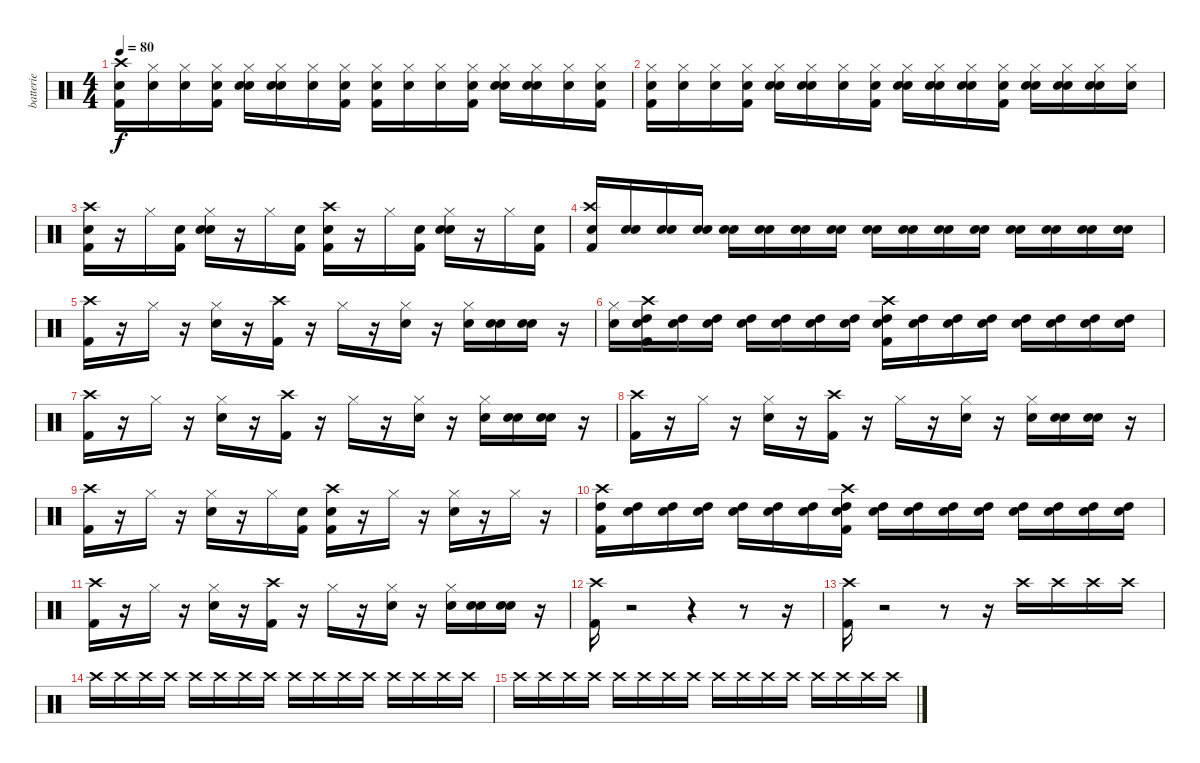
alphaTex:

\track ("batterie" "batterie") {instrument percussion}
\staff {score}
\articulation defaults
\ts (4 4)
\tempo 80
\clef neutral
\ks c
("Snare (hit)" "Crash high (hit)" "Kick (hit) 2").16{dy f} ("Snare (hit)" "Hi-Hat (closed)").16 ("Snare (hit)" "Hi-Hat (closed)").16 ("Snare (hit)" "Hi-Hat (closed)" "Kick (hit) 2").16 ("Snare (hit)" "Hi-Hat (closed)" "Snare (hit) 2").16 ("Snare (hit)" "Hi-Hat (closed)" "Snare (hit) 2").16 ("Snare (hit)" "Hi-Hat (closed)").16 ("Snare (hit)" "Hi-Hat (closed)" "Kick (hit) 2").16 ("Snare (hit)" "Hi-Hat (closed)" "Kick (hit) 2").16 ("Snare (hit)" "Hi-Hat (closed)").16 ("Snare (hit)" "Hi-Hat (closed)").16 ("Snare (hit)" "Hi-Hat (closed)" "Kick (hit) 2").16 ("Snare (hit)" "Hi-Hat (closed)" "Snare (hit) 2").16 ("Snare (hit)" "Hi-Hat (closed)" "Snare (hit) 2").16 ("Snare (hit)" "Hi-Hat (closed)").16 ("Snare (hit)" "Hi-Hat (closed)" "Kick (hit) 2").16 |
("Snare (hit)" "Kick (hit) 2" "Hi-Hat (closed)").16 ("Snare (hit)" "Hi-Hat (closed)").16 ("Snare (hit)" "Hi-Hat (closed)").16 ("Snare (hit)" "Kick (hit) 2" "Hi-Hat (closed)").16 ("Snare (hit)" "Snare (hit) 2" "Hi-Hat (closed)").16 ("Snare (hit)" "Snare (hit) 2" "Hi-Hat (closed)").16 ("Snare (hit)" "Hi-Hat (closed)").16 ("Snare (hit)" "Kick (hit) 2" "Hi-Hat (closed)").16 ("Snare (hit)" "Snare (hit) 2" "Hi-Hat (closed)").16 ("Snare (hit)" "Snare (hit) 2" "Hi-Hat (closed)").16 ("Snare (hit)" "Snare (hit) 2" "Hi-Hat (closed)").16 ("Snare (hit)" "Kick (hit) 2" "Hi-Hat (closed)").16 ("Snare (hit)" "Snare (hit) 2" "Hi-Hat (closed)").16 ("Snare (hit)" "Snare (hit) 2" "Hi-Hat (closed)").16 ("Snare (hit)" "Snare (hit) 2" "Hi-Hat (closed)").16 ("Snare (hit) 2" "Hi-Hat (closed)").16 |
("Snare (hit)" "Crash high (hit)" "Kick (hit) 2").16 r.16 "Hi-Hat (closed)".16 ("Snare (hit)" "Kick (hit) 2").16 ("Snare (hit)" "Hi-Hat (closed)" "Snare (hit) 2").16 r.16 "Hi-Hat (closed)".16 ("Snare (hit)" "Kick (hit) 2").16 ("Snare (hit)" "Crash high (hit)" "Kick (hit) 2").16 r.16 "Hi-Hat (closed)".16 ("Snare (hit)" "Kick (hit) 2").16 ("Snare (hit)" "Hi-Hat (closed)" "Snare (hit) 2").16 r.16 "Hi-Hat (closed)".16 ("Snare (hit)" "Kick (hit) 2").16 |
("Snare (hit)" "Crash high (hit)" "Kick (hit) 2").16 ("Snare (hit)" "Snare (hit) 2").16 ("Snare (hit)" "Snare (hit) 2").16 ("Snare (hit)" "Snare (hit) 2").16 ("Snare (hit)" "Snare (hit) 2").16 ("Snare (hit)" "Snare (hit) 2").16 ("Snare (hit)" "Snare (hit) 2").16 ("Snare (hit)" "Snare (hit) 2").16 ("Snare (hit)" "Snare (hit) 2").16 ("Snare (hit)" "Snare (hit) 2").16 ("Snare (hit)" "Snare (hit) 2").16 ("Snare (hit)" "Snare (hit) 2").16 ("Snare (hit)" "Snare (hit) 2").16 ("Snare (hit)" "Snare (hit) 2").16 ("Snare (hit)" "Snare (hit) 2").16 ("Snare (hit)" "Snare (hit) 2").16 |
("Crash high (hit)" "Kick (hit) 2").16 r.16 "Hi-Hat (closed)".16 r.16 ("Hi-Hat (closed)" "Snare (hit) 2").16 r.16 ("Crash high (hit)" "Kick (hit) 2").16 r.16 "Hi-Hat (closed)".16 r.16 ("Hi-Hat (closed)" "Snare (hit) 2").16 r.16 ("Hi-Hat (closed)" "Snare (hit) 2").16 ("Snare (hit)" "Snare (hit) 2").16 ("Snare (hit)" "Snare (hit) 2").16 r.16 |
("Snare (hit)" "Hi-Hat (closed)").16 ("Snare (hit)" "High Tom (hit)" "Kick (hit) 2" "Crash high (hit)").16 ("Snare (hit)" "High Tom (hit)").16 ("Snare (hit)" "High Tom (hit)").16 ("Snare (hit)" "High Tom (hit)").16 ("Snare (hit)" "High Tom (hit)").16 ("Snare (hit)" "High Tom (hit)").16 ("Snare (hit)" "High Tom (hit)").16 ("Snare (hit)" "High Tom (hit)" "Kick (hit) 2" "Crash high (hit)").16 ("Snare (hit)" "High Tom (hit)").16 ("Snare (hit)" "High Tom (hit)").16 ("Snare (hit)" "High Tom (hit)").16 ("Snare (hit)" "High Tom (hit)").16 ("Snare (hit)" "High Tom (hit)").16 ("Snare (hit)" "High Tom (hit)").16 ("Snare (hit)" "High Tom (hit)").16 |
("Crash high (hit)" "Kick (hit) 2").16 r.16 "Hi-Hat (closed)".16 r.16 ("Hi-Hat (closed)" "Snare (hit) 2").16 r.16 ("Crash high (hit)" "Kick (hit) 2").16 r.16 "Hi-Hat (closed)".16 r.16 ("Hi-Hat (closed)" "Snare (hit) 2").16 r.16 ("Hi-Hat (closed)" "Snare (hit) 2").16 ("Snare (hit)" "Snare (hit) 2").16 ("Snare (hit)" "Snare (hit) 2").16 r.16 |
("Crash high (hit)" "Kick (hit) 2").16 r.16 "Hi-Hat (closed)".16 r.16 ("Hi-Hat (closed)" "Snare (hit) 2").16 r.16 ("Crash high (hit)" "Kick (hit) 2").16 r.16 "Hi-Hat (closed)".16 r.16 ("Hi-Hat (closed)" "Snare (hit) 2").16 r.16 ("Hi-Hat (closed)" "Snare (hit) 2").16 ("Snare (hit)" "Snare (hit) 2").16 ("Snare (hit)" "Snare (hit) 2").16 r.16 |
("Crash high (hit)" "Kick (hit) 2").16 r.16 "Hi-Hat (closed)".16 r.16 ("Hi-Hat (closed)" "Snare (hit) 2").16 r.16 "Hi-Hat (closed)".16 ("Snare (hit)" "Kick (hit) 2").16 ("Snare (hit)" "Crash high (hit)" "Kick (hit) 2").16 r.16 "Hi-Hat (closed)".16 r.16 ("Hi-Hat (closed)" "Snare (hit) 2").16 r.16 "Hi-Hat (closed)".16 r.16 |
("High Tom (hit)" "Kick (hit) 2" "Crash high (hit)").16 ("Snare (hit)" "High Tom (hit)").16 ("Snare (hit)" "High Tom (hit)").16 ("Snare (hit)" "High Tom (hit)").16 ("Snare (hit)" "High Tom (hit)").16 ("Snare (hit)" "High Tom (hit)").16 ("Snare (hit)" "High Tom (hit)").16 ("Snare (hit)" "High Tom (hit)" "Kick (hit) 2" "Crash high (hit)").16 ("Snare (hit)" "High Tom (hit)").16 ("Snare (hit)" "High Tom (hit)").16 ("Snare (hit)" "High Tom (hit)").16 ("Snare (hit)" "High Tom (hit)").16 ("Snare (hit)" "High Tom (hit)").16 ("Snare (hit)" "High Tom (hit)").16 ("Snare (hit)" "High Tom (hit)").16 ("Snare (hit)" "High Tom (hit)").16 |
("Crash high (hit)" "Kick (hit) 2").16 r.16 "Hi-Hat (closed)".16 r.16 ("Hi-Hat (closed)" "Snare (hit) 2").16 r.16 ("Crash high (hit)" "Kick (hit) 2").16 r.16 "Hi-Hat (closed)".16 r.16 ("Hi-Hat (closed)" "Snare (hit) 2").16 r.16 ("Hi-Hat (closed)" "Snare (hit) 2").16 ("Snare (hit)" "Snare (hit) 2").16 ("Snare (hit)" "Snare (hit) 2").16 r.16 |
("Crash high (hit)" "Kick (hit) 2").16 r.2 r.4 r.8 r.16 |
("Crash high (hit)" "Kick (hit) 2").16 r.2 r.8 r.16 "Crash high (hit)".16 "Crash high (hit)".16 "Crash high (hit)".16 "Crash high (hit)".16 |
"Crash high (hit)".16 "Crash high (hit)".16 "Crash high (hit)".16 "Crash high (hit)".16 "Crash high (hit)".16 "Crash high (hit)".16 "Crash high (hit)".16 "Crash high (hit)".16 "Crash high (hit)".16 "Crash high (hit)".16 "Crash high (hit)".16 "Crash high (hit)".16 "Crash high (hit)".16 "Crash high (hit)".16 "Crash high (hit)".16 "Crash high (hit)".16 |
"Crash high (hit)".16 "Crash high (hit)".16 "Crash high (hit)".16 "Crash high (hit)".16 "Crash high (hit)".16 "Crash high (hit)".16 "Crash high (hit)".16 "Crash high (hit)".16 "Crash high (hit)".16 "Crash high (hit)".16 "Crash high (hit)".16 "Crash high (hit)".16 "Crash high (hit)".16 "Crash high (hit)".16 "Crash high (hit)".16 "Crash high (hit)".16
